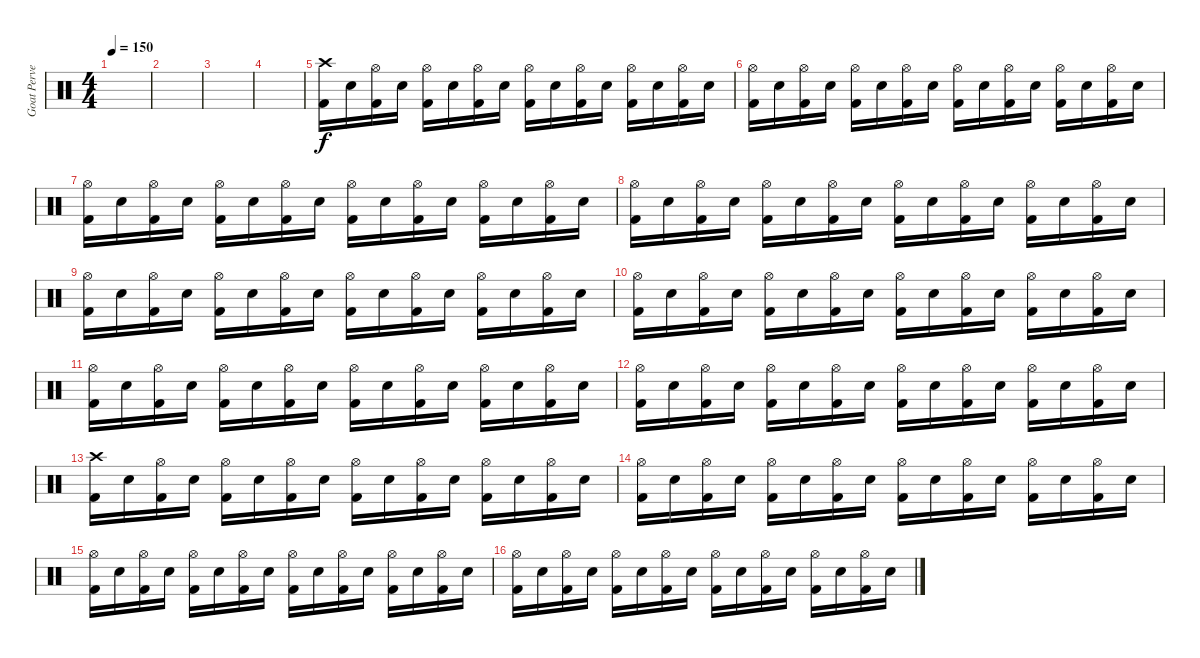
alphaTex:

\track ("Goat Pervertor" "Goat Perve") {instrument percussion}
\staff {score}
\articulation defaults
\ts (4 4)
\tempo 150
\clef neutral
\ks c
|
|
|
|
("Kick (hit) 2" "Crash high (hit)").16 "Snare (hit) 2".16 ("Kick (hit) 2" "Hi-Hat (open)").16 "Snare (hit) 2".16 ("Kick (hit) 2" "Hi-Hat (open)").16 "Snare (hit) 2".16 ("Kick (hit) 2" "Hi-Hat (open)").16 "Snare (hit) 2".16 ("Kick (hit) 2" "Hi-Hat (open)").16 "Snare (hit) 2".16 ("Kick (hit) 2" "Hi-Hat (open)").16 "Snare (hit) 2".16 ("Kick (hit) 2" "Hi-Hat (open)").16 "Snare (hit) 2".16 ("Kick (hit) 2" "Hi-Hat (open)").16 "Snare (hit) 2".16 |
("Kick (hit) 2" "Hi-Hat (open)").16 "Snare (hit) 2".16 ("Kick (hit) 2" "Hi-Hat (open)").16 "Snare (hit) 2".16 ("Kick (hit) 2" "Hi-Hat (open)").16 "Snare (hit) 2".16 ("Kick (hit) 2" "Hi-Hat (open)").16 "Snare (hit) 2".16 ("Kick (hit) 2" "Hi-Hat (open)").16 "Snare (hit) 2".16 ("Kick (hit) 2" "Hi-Hat (open)").16 "Snare (hit) 2".16 ("Kick (hit) 2" "Hi-Hat (open)").16 "Snare (hit) 2".16 ("Kick (hit) 2" "Hi-Hat (open)").16 "Snare (hit) 2".16 |
("Kick (hit) 2" "Hi-Hat (open)").16 "Snare (hit) 2".16 ("Kick (hit) 2" "Hi-Hat (open)").16 "Snare (hit) 2".16 ("Kick (hit) 2" "Hi-Hat (open)").16 "Snare (hit) 2".16 ("Kick (hit) 2" "Hi-Hat (open)").16 "Snare (hit) 2".16 ("Kick (hit) 2" "Hi-Hat (open)").16 "Snare (hit) 2".16 ("Kick (hit) 2" "Hi-Hat (open)").16 "Snare (hit) 2".16 ("Kick (hit) 2" "Hi-Hat (open)").16 "Snare (hit) 2".16 ("Kick (hit) 2" "Hi-Hat (open)").16 "Snare (hit) 2".16 |
("Kick (hit) 2" "Hi-Hat (open)").16 "Snare (hit) 2".16 ("Kick (hit) 2" "Hi-Hat (open)").16 "Snare (hit) 2".16 ("Kick (hit) 2" "Hi-Hat (open)").16 "Snare (hit) 2".16 ("Kick (hit) 2" "Hi-Hat (open)").16 "Snare (hit) 2".16 ("Kick (hit) 2" "Hi-Hat (open)").16 "Snare (hit) 2".16 ("Kick (hit) 2" "Hi-Hat (open)").16 "Snare (hit) 2".16 ("Kick (hit) 2" "Hi-Hat (open)").16 "Snare (hit) 2".16 ("Kick (hit) 2" "Hi-Hat (open)").16 "Snare (hit) 2".16 |
("Kick (hit) 2" "Hi-Hat (open)").16 "Snare (hit) 2".16 ("Kick (hit) 2" "Hi-Hat (open)").16 "Snare (hit) 2".16 ("Kick (hit) 2" "Hi-Hat (open)").16 "Snare (hit) 2".16 ("Kick (hit) 2" "Hi-Hat (open)").16 "Snare (hit) 2".16 ("Kick (hit) 2" "Hi-Hat (open)").16 "Snare (hit) 2".16 ("Kick (hit) 2" "Hi-Hat (open)").16 "Snare (hit) 2".16 ("Kick (hit) 2" "Hi-Hat (open)").16 "Snare (hit) 2".16 ("Kick (hit) 2" "Hi-Hat (open)").16 "Snare (hit) 2".16 |
("Kick (hit) 2" "Hi-Hat (open)").16 "Snare (hit) 2".16 ("Kick (hit) 2" "Hi-Hat (open)").16 "Snare (hit) 2".16 ("Kick (hit) 2" "Hi-Hat (open)").16 "Snare (hit) 2".16 ("Kick (hit) 2" "Hi-Hat (open)").16 "Snare (hit) 2".16 ("Kick (hit) 2" "Hi-Hat (open)").16 "Snare (hit) 2".16 ("Kick (hit) 2" "Hi-Hat (open)").16 "Snare (hit) 2".16 ("Kick (hit) 2" "Hi-Hat (open)").16 "Snare (hit) 2".16 ("Kick (hit) 2" "Hi-Hat (open)").16 "Snare (hit) 2".16 |
("Kick (hit) 2" "Hi-Hat (open)").16 "Snare (hit) 2".16 ("Kick (hit) 2" "Hi-Hat (open)").16 "Snare (hit) 2".16 ("Kick (hit) 2" "Hi-Hat (open)").16 "Snare (hit) 2".16 ("Kick (hit) 2" "Hi-Hat (open)").16 "Snare (hit) 2".16 ("Kick (hit) 2" "Hi-Hat (open)").16 "Snare (hit) 2".16 ("Kick (hit) 2" "Hi-Hat (open)").16 "Snare (hit) 2".16 ("Kick (hit) 2" "Hi-Hat (open)").16 "Snare (hit) 2".16 ("Kick (hit) 2" "Hi-Hat (open)").16 "Snare (hit) 2".16 |
("Kick (hit) 2" "Hi-Hat (open)").16 "Snare (hit) 2".16 ("Kick (hit) 2" "Hi-Hat (open)").16 "Snare (hit) 2".16 ("Kick (hit) 2" "Hi-Hat (open)").16 "Snare (hit) 2".16 ("Kick (hit) 2" "Hi-Hat (open)").16 "Snare (hit) 2".16 ("Kick (hit) 2" "Hi-Hat (open)").16 "Snare (hit) 2".16 ("Kick (hit) 2" "Hi-Hat (open)").16 "Snare (hit) 2".16 ("Kick (hit) 2" "Hi-Hat (open)").16 "Snare (hit) 2".16 ("Kick (hit) 2" "Hi-Hat (open)").16 "Snare (hit) 2".16 |
("Kick (hit) 2" "Crash high (hit)").16 "Snare (hit) 2".16 ("Kick (hit) 2" "Hi-Hat (open)").16 "Snare (hit) 2".16 ("Kick (hit) 2" "Hi-Hat (open)").16 "Snare (hit) 2".16 ("Kick (hit) 2" "Hi-Hat (open)").16 "Snare (hit) 2".16 ("Kick (hit) 2" "Hi-Hat (open)").16 "Snare (hit) 2".16 ("Kick (hit) 2" "Hi-Hat (open)").16 "Snare (hit) 2".16 ("Kick (hit) 2" "Hi-Hat (open)").16 "Snare (hit) 2".16 ("Kick (hit) 2" "Hi-Hat (open)").16 "Snare (hit) 2".16 |
("Kick (hit) 2" "Hi-Hat (open)").16 "Snare (hit) 2".16 ("Kick (hit) 2" "Hi-Hat (open)").16 "Snare (hit) 2".16 ("Kick (hit) 2" "Hi-Hat (open)").16 "Snare (hit) 2".16 ("Kick (hit) 2" "Hi-Hat (open)").16 "Snare (hit) 2".16 ("Kick (hit) 2" "Hi-Hat (open)").16 "Snare (hit) 2".16 ("Kick (hit) 2" "Hi-Hat (open)").16 "Snare (hit) 2".16 ("Kick (hit) 2" "Hi-Hat (open)").16 "Snare (hit) 2".16 ("Kick (hit) 2" "Hi-Hat (open)").16 "Snare (hit) 2".16 |
("Kick (hit) 2" "Hi-Hat (open)").16 "Snare (hit) 2".16 ("Kick (hit) 2" "Hi-Hat (open)").16 "Snare (hit) 2".16 ("Kick (hit) 2" "Hi-Hat (open)").16 "Snare (hit) 2".16 ("Kick (hit) 2" "Hi-Hat (open)").16 "Snare (hit) 2".16 ("Kick (hit) 2" "Hi-Hat (open)").16 "Snare (hit) 2".16 ("Kick (hit) 2" "Hi-Hat (open)").16 "Snare (hit) 2".16 ("Kick (hit) 2" "Hi-Hat (open)").16 "Snare (hit) 2".16 ("Kick (hit) 2" "Hi-Hat (open)").16 "Snare (hit) 2".16 |
("Kick (hit) 2" "Hi-Hat (open)").16 "Snare (hit) 2".16 ("Kick (hit) 2" "Hi-Hat (open)").16 "Snare (hit) 2".16 ("Kick (hit) 2" "Hi-Hat (open)").16 "Snare (hit) 2".16 ("Kick (hit) 2" "Hi-Hat (open)").16 "Snare (hit) 2".16 ("Kick (hit) 2" "Hi-Hat (open)").16 "Snare (hit) 2".16 ("Kick (hit) 2" "Hi-Hat (open)").16 "Snare (hit) 2".16 ("Kick (hit) 2" "Hi-Hat (open)").16 "Snare (hit) 2".16 ("Kick (hit) 2" "Hi-Hat (open)").16 "Snare (hit) 2".16
